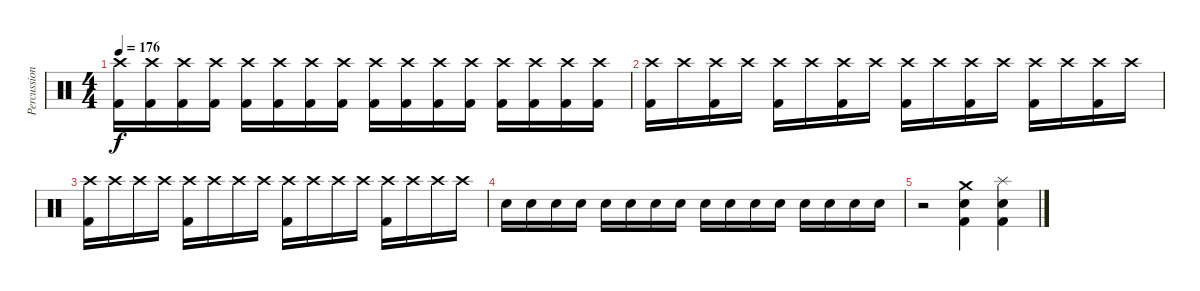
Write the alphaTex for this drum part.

\track ("Percussion" "Percussion") {instrument percussion}
\staff {score}
\articulation defaults
\ts (4 4)
\tempo 176
\clef neutral
\ks c
("Crash high (hit)" "Kick (hit) 2").16{dy f} ("Crash high (hit)" "Kick (hit) 2").16 ("Crash high (hit)" "Kick (hit) 2").16 ("Crash high (hit)" "Kick (hit) 2").16 ("Crash high (hit)" "Kick (hit) 2").16 ("Crash high (hit)" "Kick (hit) 2").16 ("Crash high (hit)" "Kick (hit) 2").16 ("Crash high (hit)" "Kick (hit) 2").16 ("Crash high (hit)" "Kick (hit) 2").16 ("Crash high (hit)" "Kick (hit) 2").16 ("Crash high (hit)" "Kick (hit) 2").16 ("Crash high (hit)" "Kick (hit) 2").16 ("Crash high (hit)" "Kick (hit) 2").16 ("Crash high (hit)" "Kick (hit) 2").16 ("Crash high (hit)" "Kick (hit) 2").16 ("Crash high (hit)" "Kick (hit) 2").16 |
("Crash high (hit)" "Kick (hit) 2").16 "Crash high (hit)".16 ("Crash high (hit)" "Kick (hit) 2").16 "Crash high (hit)".16 ("Crash high (hit)" "Kick (hit) 2").16 "Crash high (hit)".16 ("Crash high (hit)" "Kick (hit) 2").16 "Crash high (hit)".16 ("Crash high (hit)" "Kick (hit) 2").16 "Crash high (hit)".16 ("Crash high (hit)" "Kick (hit) 2").16 "Crash high (hit)".16 ("Crash high (hit)" "Kick (hit) 2").16 "Crash high (hit)".16 ("Crash high (hit)" "Kick (hit) 2").16 "Crash high (hit)".16 |
("Crash high (hit)" "Kick (hit) 2").16 "Crash high (hit)".16 "Crash high (hit)".16 "Crash high (hit)".16 ("Crash high (hit)" "Kick (hit) 2").16 "Crash high (hit)".16 "Crash high (hit)".16 "Crash high (hit)".16 ("Crash high (hit)" "Kick (hit) 2").16 "Crash high (hit)".16 "Crash high (hit)".16 "Crash high (hit)".16 ("Crash high (hit)" "Kick (hit) 2").16 "Crash high (hit)".16 "Crash high (hit)".16 "Crash high (hit)".16 |
"Snare (hit) 2".16 "Snare (hit) 2".16 "Snare (hit) 2".16 "Snare (hit) 2".16 "Snare (hit) 2".16 "Snare (hit) 2".16 "Snare (hit) 2".16 "Snare (hit) 2".16 "Snare (hit) 2".16 "Snare (hit) 2".16 "Snare (hit) 2".16 "Snare (hit) 2".16 "Snare (hit) 2".16 "Snare (hit) 2".16 "Snare (hit) 2".16 "Snare (hit) 2".16 |
r.2 ("Crash medium (hit)" "Snare (hit) 2" "Kick (hit) 2").4 ("Splash (hit)" "Snare (hit) 2" "Kick (hit) 2").4
